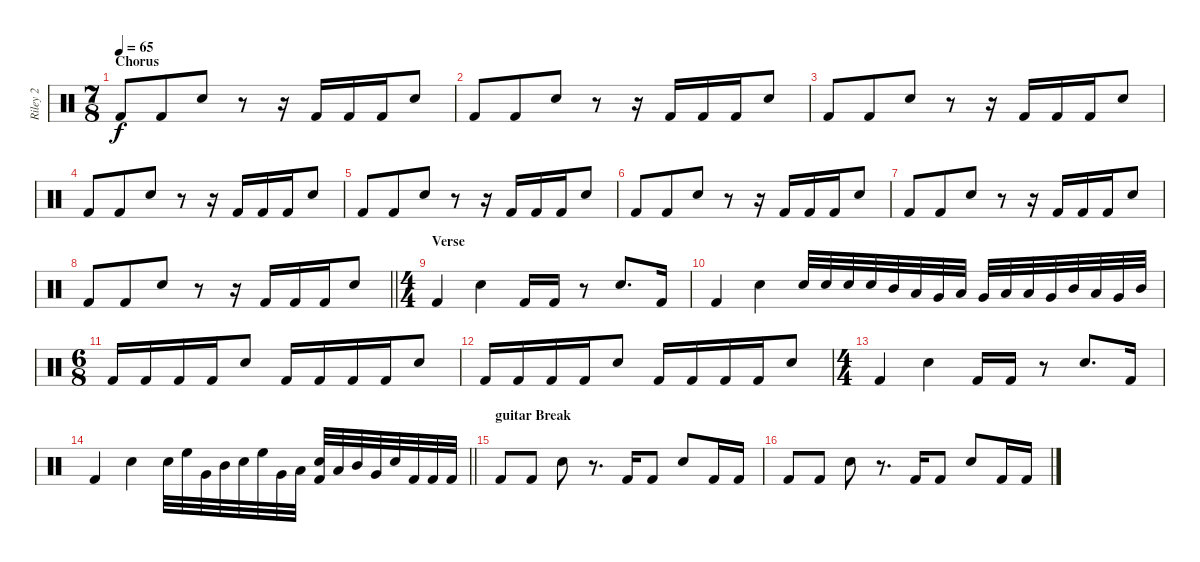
\track ("Riley 2" "Riley 2") {instrument percussion}
\staff {score}
\articulation defaults
\ts (7 8)
\section ("" "Chorus")
\tempo 65
\clef neutral
\ks c "Kick (hit) 2".8{dy f} "Kick (hit) 2".8 "Electric Snare (hit)".8
r.8 r.16 "Kick (hit) 2".16 "Kick (hit) 2".16 "Kick (hit) 2".16 "Electric Snare (hit)".8 |
"Kick (hit) 2".8 "Kick (hit) 2".8 "Electric Snare (hit)".8 r.8 r.16 "Kick (hit) 2".16 "Kick (hit) 2".16 "Kick (hit) 2".16 "Electric Snare (hit)".8 |
"Kick (hit) 2".8 "Kick (hit) 2".8 "Electric Snare (hit)".8 r.8 r.16 "Kick (hit) 2".16 "Kick (hit) 2".16 "Kick (hit) 2".16 "Electric Snare (hit)".8 |
"Kick (hit) 2".8 "Kick (hit) 2".8 "Electric Snare (hit)".8 r.8 r.16 "Kick (hit) 2".16 "Kick (hit) 2".16 "Kick (hit) 2".16 "Electric Snare (hit)".8 |
"Kick (hit) 2".8 "Kick (hit) 2".8 "Electric Snare (hit)".8 r.8 r.16 "Kick (hit) 2".16 "Kick (hit) 2".16 "Kick (hit) 2".16 "Electric Snare (hit)".8 |
"Kick (hit) 2".8 "Kick (hit) 2".8 "Electric Snare (hit)".8 r.8 r.16 "Kick (hit) 2".16 "Kick (hit) 2".16 "Kick (hit) 2".16 "Electric Snare (hit)".8 |
"Kick (hit) 2".8 "Kick (hit) 2".8 "Electric Snare (hit)".8 r.8 r.16 "Kick (hit) 2".16 "Kick (hit) 2".16 "Kick (hit) 2".16 "Electric Snare (hit)".8 |
\barLineRight lightlight "Kick (hit) 2".8 "Kick (hit) 2".8 "Electric Snare (hit)".8
r.8 r.16 "Kick (hit) 2".16 "Kick (hit) 2".16 "Kick (hit) 2".16 "Electric Snare (hit)".8 |
\ts (4 4)
\section ("" "Verse")
"Kick (hit) 2".4 "Electric Snare (hit)".4 "Kick (hit) 2".16 "Kick (hit) 2".16 r.8 "Electric Snare (hit)".8{d} "Kick (hit) 2".16 |
"Kick (hit) 2".4 "Electric Snare (hit)".4 "Electric Snare (hit)".32 "Electric Snare (hit)".32 "Electric Snare (hit)".32 "Electric Snare (hit)".32 "Mid Tom (hit)".32 "Low Tom (hit)".32 "Very Low Tom (hit)".32 "Low Tom (hit)".32 "Very Low Tom (hit)".32 "Low Tom (hit)".32 "Low Tom (hit)".32 "Very Low Tom (hit)".32 "Mid Tom (hit)".32 "Low Tom (hit)".32 "Very Low Tom (hit)".32 "Mid Tom (hit)".32 |
\ts (6 8)
"Kick (hit) 2".16 "Kick (hit) 2".16 "Kick (hit) 2".16 "Kick (hit) 2".16 "Electric Snare (hit)".8 "Kick (hit) 2".16 "Kick (hit) 2".16 "Kick (hit) 2".16 "Kick (hit) 2".16 "Electric Snare (hit)".8 |
"Kick (hit) 2".16 "Kick (hit) 2".16 "Kick (hit) 2".16 "Kick (hit) 2".16 "Electric Snare (hit)".8 "Kick (hit) 2".16 "Kick (hit) 2".16 "Kick (hit) 2".16 "Kick (hit) 2".16 "Electric Snare (hit)".8 |
\ts (4 4)
"Kick (hit) 2".4 "Electric Snare (hit)".4 "Kick (hit) 2".16 "Kick (hit) 2".16 r.8 "Electric Snare (hit)".8{d} "Kick (hit) 2".16 |
\barLineRight lightlight "Kick (hit) 2".4 "Electric Snare (hit)".4 "Electric Snare (hit)".32 "High Floor Tom (hit)".32 "Very Low Tom (hit)".32 "Mid Tom (hit)".32 "Electric Snare (hit)".32 "High Floor Tom (hit)".32 "Very Low Tom (hit)".32 "Low Tom (hit)".32
("Electric Snare (hit)" "Kick (hit) 2").32 "Low Tom (hit)".32 "Mid Tom (hit)".32 "Very Low Tom (hit)".32 "Electric Snare (hit)".32 "Kick (hit) 2".32 "Kick (hit) 2".32 "Kick (hit) 2".32 |
\section ("" "guitar Break")
"Kick (hit) 2".8 "Kick (hit) 2".8 "Electric Snare (hit)".8 r.8{d} "Kick (hit) 2".16 "Kick (hit) 2".8 "Electric Snare (hit)".8 "Kick (hit) 2".16 "Kick (hit) 2".16 |
"Kick (hit) 2".8 "Kick (hit) 2".8 "Electric Snare (hit)".8 r.8{d} "Kick (hit) 2".16 "Kick (hit) 2".8 "Electric Snare (hit)".8 "Kick (hit) 2".16 "Kick (hit) 2".16
